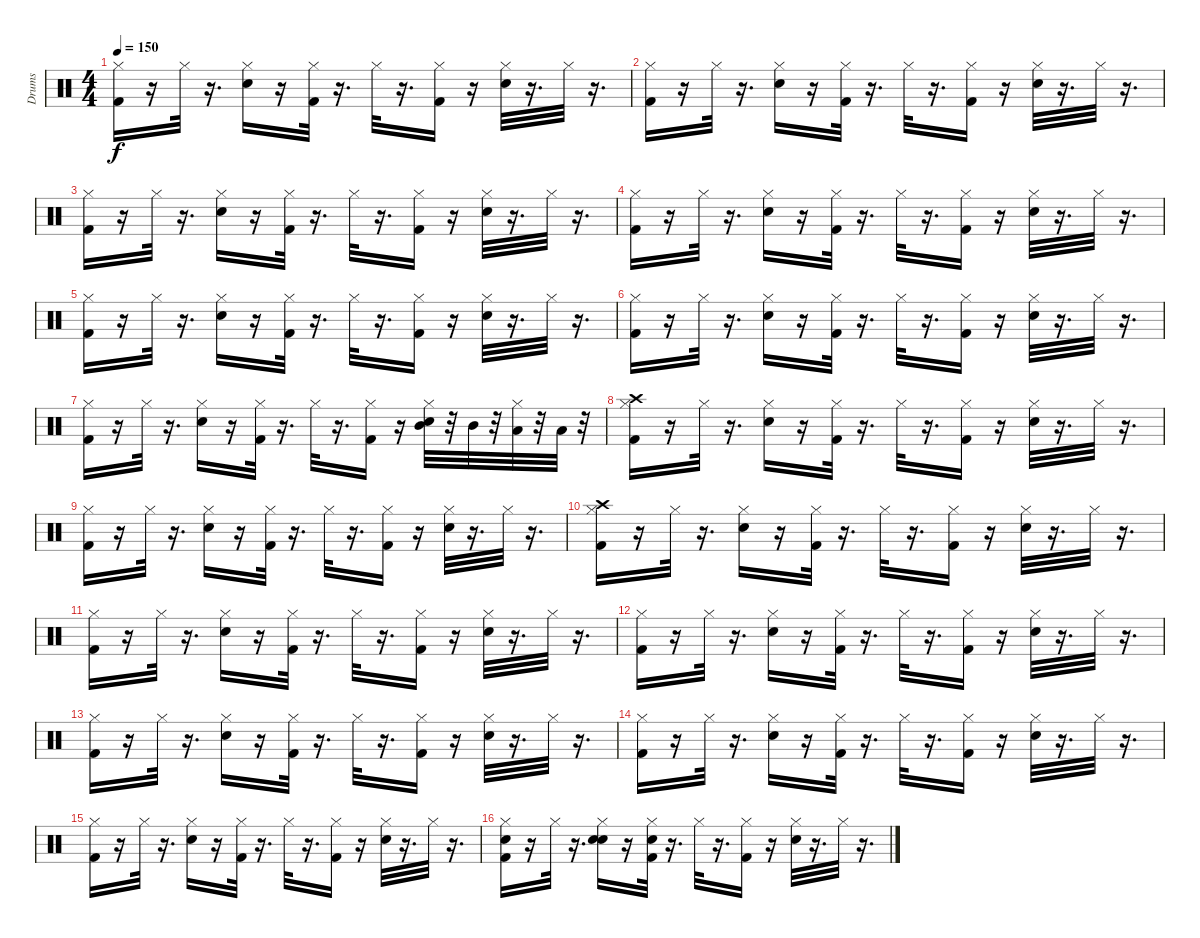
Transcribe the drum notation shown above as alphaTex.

\track ("Drums" "Drums") {instrument percussion}
\staff {score}
\articulation defaults
\ts (4 4)
\tempo 150
\clef neutral
\ks c
("Kick (hit) 2" "Hi-Hat (closed)").16{dy f} r.16 "Hi-Hat (closed)".32 r.16{d} ("Electric Snare (hit)" "Hi-Hat (closed)").16 r.16 ("Kick (hit) 2" "Hi-Hat (closed)").32 r.16{d} "Hi-Hat (closed)".32 r.16{d} ("Kick (hit) 2" "Hi-Hat (closed)").16 r.16 ("Electric Snare (hit)" "Hi-Hat (closed)").32 r.16{d} "Hi-Hat (closed)".32 r.16{d} |
("Kick (hit) 2" "Hi-Hat (closed)").16 r.16 "Hi-Hat (closed)".32 r.16{d} ("Electric Snare (hit)" "Hi-Hat (closed)").16 r.16 ("Kick (hit) 2" "Hi-Hat (closed)").32 r.16{d} "Hi-Hat (closed)".32 r.16{d} ("Kick (hit) 2" "Hi-Hat (closed)").16 r.16 ("Electric Snare (hit)" "Hi-Hat (closed)").32 r.16{d} "Hi-Hat (closed)".32 r.16{d} |
("Kick (hit) 2" "Hi-Hat (closed)").16 r.16 "Hi-Hat (closed)".32 r.16{d} ("Electric Snare (hit)" "Hi-Hat (closed)").16 r.16 ("Kick (hit) 2" "Hi-Hat (closed)").32 r.16{d} "Hi-Hat (closed)".32 r.16{d} ("Kick (hit) 2" "Hi-Hat (closed)").16 r.16 ("Electric Snare (hit)" "Hi-Hat (closed)").32 r.16{d} "Hi-Hat (closed)".32 r.16{d} |
("Hi-Hat (closed)" "Kick (hit) 2").16 r.16 "Hi-Hat (closed)".32 r.16{d} ("Electric Snare (hit)" "Hi-Hat (closed)").16 r.16 ("Kick (hit) 2" "Hi-Hat (closed)").32 r.16{d} "Hi-Hat (closed)".32 r.16{d} ("Kick (hit) 2" "Hi-Hat (closed)").16 r.16 ("Electric Snare (hit)" "Hi-Hat (closed)").32 r.16{d} "Hi-Hat (closed)".32 r.16{d} |
("Kick (hit) 2" "Hi-Hat (closed)").16 r.16 "Hi-Hat (closed)".32 r.16{d} ("Electric Snare (hit)" "Hi-Hat (closed)").16 r.16 ("Kick (hit) 2" "Hi-Hat (closed)").32 r.16{d} "Hi-Hat (closed)".32 r.16{d} ("Kick (hit) 2" "Hi-Hat (closed)").16 r.16 ("Electric Snare (hit)" "Hi-Hat (closed)").32 r.16{d} "Hi-Hat (closed)".32 r.16{d} |
("Kick (hit) 2" "Hi-Hat (closed)").16 r.16 "Hi-Hat (closed)".32 r.16{d} ("Electric Snare (hit)" "Hi-Hat (closed)").16 r.16 ("Kick (hit) 2" "Hi-Hat (closed)").32 r.16{d} "Hi-Hat (closed)".32 r.16{d} ("Kick (hit) 2" "Hi-Hat (closed)").16 r.16 ("Electric Snare (hit)" "Hi-Hat (closed)").32 r.16{d} "Hi-Hat (closed)".32 r.16{d} |
("Kick (hit) 2" "Hi-Hat (closed)").16 r.16 "Hi-Hat (closed)".32 r.16{d} ("Electric Snare (hit)" "Hi-Hat (closed)").16 r.16 ("Kick (hit) 2" "Hi-Hat (closed)").32 r.16{d} "Hi-Hat (closed)".32 r.16{d} ("Kick (hit) 2" "Hi-Hat (closed)").16 r.16 ("Electric Snare (hit)" "Hi-Hat (closed)" "Mid Tom (hit)").32 r.32 "Mid Tom (hit)".32 r.32 ("Hi-Hat (closed)" "Low Tom (hit)").32 r.32 "Low Tom (hit)".32 r.32 |
("Kick (hit) 2" "Hi-Hat (closed)" "Crash high (hit)").16 r.16 "Hi-Hat (closed)".32 r.16{d} ("Electric Snare (hit)" "Hi-Hat (closed)").16 r.16 ("Kick (hit) 2" "Hi-Hat (closed)").32 r.16{d} "Hi-Hat (closed)".32 r.16{d} ("Kick (hit) 2" "Hi-Hat (closed)").16 r.16 ("Electric Snare (hit)" "Hi-Hat (closed)").32 r.16{d} "Hi-Hat (closed)".32 r.16{d} |
("Kick (hit) 2" "Hi-Hat (closed)").16 r.16 "Hi-Hat (closed)".32 r.16{d} ("Electric Snare (hit)" "Hi-Hat (closed)").16 r.16 ("Kick (hit) 2" "Hi-Hat (closed)").32 r.16{d} "Hi-Hat (closed)".32 r.16{d} ("Kick (hit) 2" "Hi-Hat (closed)").16 r.16 ("Electric Snare (hit)" "Hi-Hat (closed)").32 r.16{d} "Hi-Hat (closed)".32 r.16{d} |
("Hi-Hat (closed)" "Crash high (hit)" "Kick (hit) 2").16 r.16 "Hi-Hat (closed)".32 r.16{d} ("Electric Snare (hit)" "Hi-Hat (closed)").16 r.16 ("Kick (hit) 2" "Hi-Hat (closed)").32 r.16{d} "Hi-Hat (closed)".32 r.16{d} ("Kick (hit) 2" "Hi-Hat (closed)").16 r.16 ("Electric Snare (hit)" "Hi-Hat (closed)").32 r.16{d} "Hi-Hat (closed)".32 r.16{d} |
("Kick (hit) 2" "Hi-Hat (closed)").16 r.16 "Hi-Hat (closed)".32 r.16{d} ("Electric Snare (hit)" "Hi-Hat (closed)").16 r.16 ("Kick (hit) 2" "Hi-Hat (closed)").32 r.16{d} "Hi-Hat (closed)".32 r.16{d} ("Kick (hit) 2" "Hi-Hat (closed)").16 r.16 ("Electric Snare (hit)" "Hi-Hat (closed)").32 r.16{d} "Hi-Hat (closed)".32 r.16{d} |
("Kick (hit) 2" "Hi-Hat (closed)").16 r.16 "Hi-Hat (closed)".32 r.16{d} ("Electric Snare (hit)" "Hi-Hat (closed)").16 r.16 ("Kick (hit) 2" "Hi-Hat (closed)").32 r.16{d} "Hi-Hat (closed)".32 r.16{d} ("Kick (hit) 2" "Hi-Hat (closed)").16 r.16 ("Electric Snare (hit)" "Hi-Hat (closed)").32 r.16{d} "Hi-Hat (closed)".32 r.16{d} |
("Kick (hit) 2" "Hi-Hat (closed)").16 r.16 "Hi-Hat (closed)".32 r.16{d} ("Electric Snare (hit)" "Hi-Hat (closed)").16 r.16 ("Kick (hit) 2" "Hi-Hat (closed)").32 r.16{d} "Hi-Hat (closed)".32 r.16{d} ("Kick (hit) 2" "Hi-Hat (closed)").16 r.16 ("Electric Snare (hit)" "Hi-Hat (closed)").32 r.16{d} "Hi-Hat (closed)".32 r.16{d} |
("Hi-Hat (closed)" "Kick (hit) 2").16 r.16 "Hi-Hat (closed)".32 r.16{d} ("Electric Snare (hit)" "Hi-Hat (closed)").16 r.16 ("Kick (hit) 2" "Hi-Hat (closed)").32 r.16{d} "Hi-Hat (closed)".32 r.16{d} ("Kick (hit) 2" "Hi-Hat (closed)").16 r.16 ("Electric Snare (hit)" "Hi-Hat (closed)").32 r.16{d} "Hi-Hat (closed)".32 r.16{d} |
("Kick (hit) 2" "Hi-Hat (closed)").16 r.16 "Hi-Hat (closed)".32 r.16{d} ("Electric Snare (hit)" "Hi-Hat (closed)").16 r.16 ("Kick (hit) 2" "Hi-Hat (closed)").32 r.16{d} "Hi-Hat (closed)".32 r.16{d} ("Kick (hit) 2" "Hi-Hat (closed)").16 r.16 ("Electric Snare (hit)" "Hi-Hat (closed)").32 r.16{d} "Hi-Hat (closed)".32 r.16{d} |
("Kick (hit) 2" "Hand Clap (hit)" "Hi-Hat (closed)").16 r.16 "Hi-Hat (closed)".32 r.16{d} ("Electric Snare (hit)" "Hand Clap (hit)" "Hi-Hat (closed)").16 r.16 ("Kick (hit) 2" "Hand Clap (hit)" "Hi-Hat (closed)").32 r.16{d} "Hi-Hat (closed)".32 r.16{d} ("Kick (hit) 2" "Hi-Hat (closed)").16 r.16 ("Electric Snare (hit)" "Hi-Hat (closed)").32 r.16{d} "Hi-Hat (closed)".32 r.16{d}
